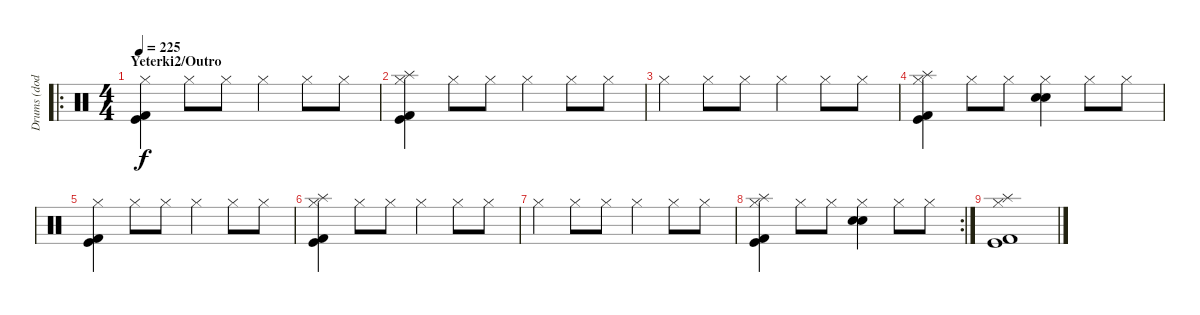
\track ("Drums (dodo)" "Drums (dod") {instrument percussion}
\staff {score}
\articulation defaults
\ro
\ts (4 4)
\section ("" "Yeterki2/Outro")
\tempo 225
\clef neutral
\ks c
("Hi-Hat (closed)" "Kick (hit)" "Kick (hit) 2").4{dy f} "Hi-Hat (closed)".8 "Hi-Hat (closed)".8 "Hi-Hat (closed)".4 "Hi-Hat (closed)".8 "Hi-Hat (closed)".8 |
("Hi-Hat (closed)" "Splash (hit)" "Kick (hit)" "Kick (hit) 2").4 "Hi-Hat (closed)".8 "Hi-Hat (closed)".8 "Hi-Hat (closed)".4 "Hi-Hat (closed)".8 "Hi-Hat (closed)".8 |
"Hi-Hat (closed)".4 "Hi-Hat (closed)".8 "Hi-Hat (closed)".8 "Hi-Hat (closed)".4 "Hi-Hat (closed)".8 "Hi-Hat (closed)".8 |
("Hi-Hat (closed)" "Splash (hit)" "Kick (hit)" "Kick (hit) 2").4 "Hi-Hat (closed)".8 "Hi-Hat (closed)".8 ("Hi-Hat (closed)" "Electric Snare (hit)" "Snare (hit) 2").4 "Hi-Hat (closed)".8 "Hi-Hat (closed)".8 |
("Hi-Hat (closed)" "Kick (hit)" "Kick (hit) 2").4 "Hi-Hat (closed)".8 "Hi-Hat (closed)".8 "Hi-Hat (closed)".4 "Hi-Hat (closed)".8 "Hi-Hat (closed)".8 |
("Hi-Hat (closed)" "Splash (hit)" "Kick (hit)" "Kick (hit) 2").4 "Hi-Hat (closed)".8 "Hi-Hat (closed)".8 "Hi-Hat (closed)".4 "Hi-Hat (closed)".8 "Hi-Hat (closed)".8 |
"Hi-Hat (closed)".4 "Hi-Hat (closed)".8 "Hi-Hat (closed)".8 "Hi-Hat (closed)".4 "Hi-Hat (closed)".8 "Hi-Hat (closed)".8 |
\rc 2
("Hi-Hat (closed)" "Splash (hit)" "Kick (hit)" "Kick (hit) 2").4 "Hi-Hat (closed)".8 "Hi-Hat (closed)".8 ("Hi-Hat (closed)" "Electric Snare (hit)" "Snare (hit) 2").4 "Hi-Hat (closed)".8 "Hi-Hat (closed)".8 |
("Hi-Hat (closed)" "Splash (hit)" "Kick (hit) 2" "Kick (hit)").1
